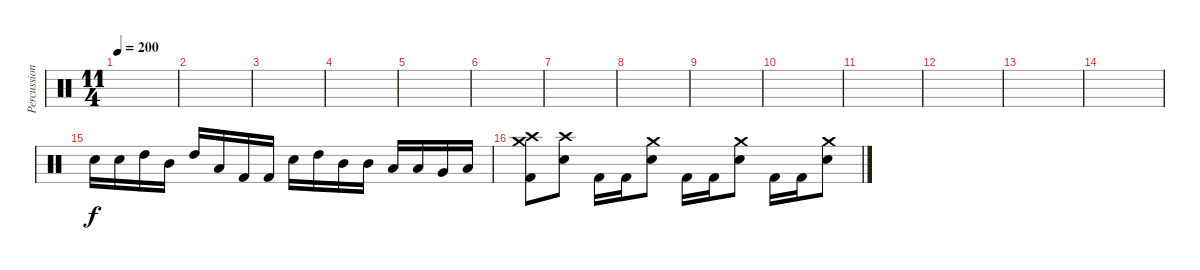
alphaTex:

\track ("Percussion" "Percussion") {instrument percussion}
\staff {score}
\articulation defaults
\ts (11 4)
\tempo 200
\clef neutral
\ks c
|
|
|
|
|
|
|
|
|
|
|
|
|
|
"Electric Snare (hit)".16 "Electric Snare (hit)".16 "High Tom (hit)".16 "Mid Tom (hit)".16 "High Tom (hit)".16 "Low Tom (hit)".16 "Kick (hit) 2".16 "Kick (hit) 2".16 "Electric Snare (hit)".16 "High Tom (hit)".16 "Mid Tom (hit)".16 "Mid Tom (hit)".16 "Low Tom (hit)".16 "Low Tom (hit)".16 "Very Low Tom (hit)".16 "Low Floor Tom (hit)".16 |
("Kick (hit) 2" "Crash medium (hit)" "Crash high (hit)").8 ("Electric Snare (hit)" "Crash high (hit)").8 "Kick (hit) 2".16 "Kick (hit) 2".16 ("Crash medium (hit)" "Electric Snare (hit)").8 "Kick (hit) 2".16 "Kick (hit) 2".16 ("Crash medium (hit)" "Electric Snare (hit)").8 "Kick (hit) 2".16 "Kick (hit) 2".16 ("Crash medium (hit)" "Electric Snare (hit)").8
